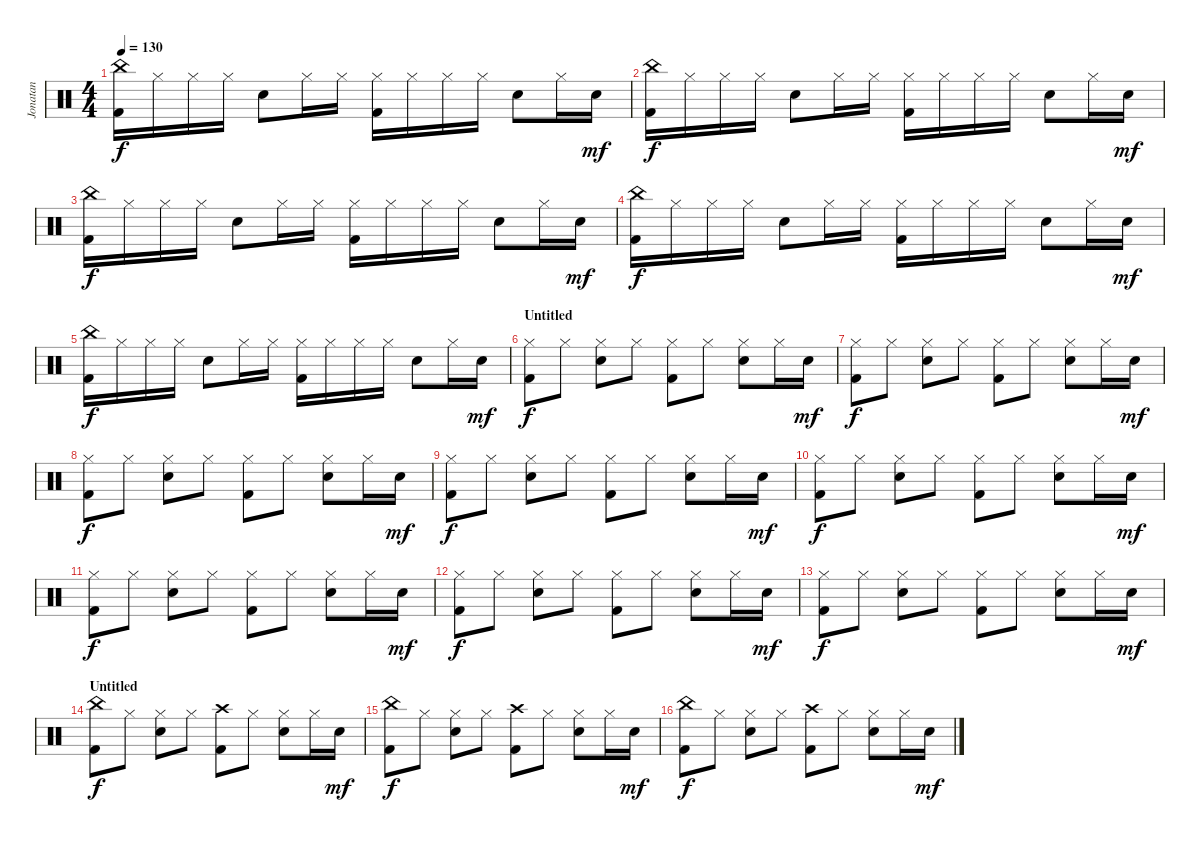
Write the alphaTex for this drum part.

\track ("Jonatan" "Jonatan") {instrument percussion}
\staff {score}
\articulation defaults
\ts (4 4)
\tempo 130
\clef neutral
\ks c
("China (hit)" "Kick (hit) 2").16{dy f} "Hi-Hat (closed)".16 "Hi-Hat (closed)".16 "Hi-Hat (closed)".16 "Electric Snare (hit)".8 "Hi-Hat (closed)".16 "Hi-Hat (closed)".16 ("Hi-Hat (closed)" "Kick (hit) 2").16 "Hi-Hat (closed)".16 "Hi-Hat (closed)".16 "Hi-Hat (closed)".16 "Electric Snare (hit)".8 "Hi-Hat (closed)".16 "Electric Snare (hit)".16{dy mf} |
("China (hit)" "Kick (hit) 2").16{dy f} "Hi-Hat (closed)".16 "Hi-Hat (closed)".16 "Hi-Hat (closed)".16 "Electric Snare (hit)".8 "Hi-Hat (closed)".16 "Hi-Hat (closed)".16 ("Hi-Hat (closed)" "Kick (hit) 2").16 "Hi-Hat (closed)".16 "Hi-Hat (closed)".16 "Hi-Hat (closed)".16 "Electric Snare (hit)".8 "Hi-Hat (closed)".16 "Electric Snare (hit)".16{dy mf} |
("China (hit)" "Kick (hit) 2").16{dy f} "Hi-Hat (closed)".16 "Hi-Hat (closed)".16 "Hi-Hat (closed)".16 "Electric Snare (hit)".8 "Hi-Hat (closed)".16 "Hi-Hat (closed)".16 ("Hi-Hat (closed)" "Kick (hit) 2").16 "Hi-Hat (closed)".16 "Hi-Hat (closed)".16 "Hi-Hat (closed)".16 "Electric Snare (hit)".8 "Hi-Hat (closed)".16 "Electric Snare (hit)".16{dy mf} |
("China (hit)" "Kick (hit) 2").16{dy f} "Hi-Hat (closed)".16 "Hi-Hat (closed)".16 "Hi-Hat (closed)".16 "Electric Snare (hit)".8 "Hi-Hat (closed)".16 "Hi-Hat (closed)".16 ("Hi-Hat (closed)" "Kick (hit) 2").16 "Hi-Hat (closed)".16 "Hi-Hat (closed)".16 "Hi-Hat (closed)".16 "Electric Snare (hit)".8 "Hi-Hat (closed)".16 "Electric Snare (hit)".16{dy mf} |
("China (hit)" "Kick (hit) 2").16{dy f} "Hi-Hat (closed)".16 "Hi-Hat (closed)".16 "Hi-Hat (closed)".16 "Electric Snare (hit)".8 "Hi-Hat (closed)".16 "Hi-Hat (closed)".16 ("Hi-Hat (closed)" "Kick (hit) 2").16 "Hi-Hat (closed)".16 "Hi-Hat (closed)".16 "Hi-Hat (closed)".16 "Electric Snare (hit)".8 "Hi-Hat (closed)".16 "Electric Snare (hit)".16{dy mf} |
\section ("" "Untitled")
("Hi-Hat (closed)" "Kick (hit) 2").8{dy f} "Hi-Hat (closed)".8 ("Hi-Hat (closed)" "Electric Snare (hit)").8 "Hi-Hat (closed)".8 ("Hi-Hat (closed)" "Kick (hit) 2").8 "Hi-Hat (closed)".8 ("Hi-Hat (closed)" "Electric Snare (hit)").8 "Hi-Hat (closed)".16 "Electric Snare (hit)".16{dy mf} |
("Hi-Hat (closed)" "Kick (hit) 2").8{dy f} "Hi-Hat (closed)".8 ("Hi-Hat (closed)" "Electric Snare (hit)").8 "Hi-Hat (closed)".8 ("Hi-Hat (closed)" "Kick (hit) 2").8 "Hi-Hat (closed)".8 ("Hi-Hat (closed)" "Electric Snare (hit)").8 "Hi-Hat (closed)".16 "Electric Snare (hit)".16{dy mf} |
("Hi-Hat (closed)" "Kick (hit) 2").8{dy f} "Hi-Hat (closed)".8 ("Hi-Hat (closed)" "Electric Snare (hit)").8 "Hi-Hat (closed)".8 ("Hi-Hat (closed)" "Kick (hit) 2").8 "Hi-Hat (closed)".8 ("Hi-Hat (closed)" "Electric Snare (hit)").8 "Hi-Hat (closed)".16 "Electric Snare (hit)".16{dy mf} |
("Hi-Hat (closed)" "Kick (hit) 2").8{dy f} "Hi-Hat (closed)".8 ("Hi-Hat (closed)" "Electric Snare (hit)").8 "Hi-Hat (closed)".8 ("Hi-Hat (closed)" "Kick (hit) 2").8 "Hi-Hat (closed)".8 ("Hi-Hat (closed)" "Electric Snare (hit)").8 "Hi-Hat (closed)".16 "Electric Snare (hit)".16{dy mf} |
("Hi-Hat (closed)" "Kick (hit) 2").8{dy f} "Hi-Hat (closed)".8 ("Hi-Hat (closed)" "Electric Snare (hit)").8 "Hi-Hat (closed)".8 ("Hi-Hat (closed)" "Kick (hit) 2").8 "Hi-Hat (closed)".8 ("Hi-Hat (closed)" "Electric Snare (hit)").8 "Hi-Hat (closed)".16 "Electric Snare (hit)".16{dy mf} |
("Hi-Hat (closed)" "Kick (hit) 2").8{dy f} "Hi-Hat (closed)".8 ("Hi-Hat (closed)" "Electric Snare (hit)").8 "Hi-Hat (closed)".8 ("Hi-Hat (closed)" "Kick (hit) 2").8 "Hi-Hat (closed)".8 ("Hi-Hat (closed)" "Electric Snare (hit)").8 "Hi-Hat (closed)".16 "Electric Snare (hit)".16{dy mf} |
("Hi-Hat (closed)" "Kick (hit) 2").8{dy f} "Hi-Hat (closed)".8 ("Hi-Hat (closed)" "Electric Snare (hit)").8 "Hi-Hat (closed)".8 ("Hi-Hat (closed)" "Kick (hit) 2").8 "Hi-Hat (closed)".8 ("Hi-Hat (closed)" "Electric Snare (hit)").8 "Hi-Hat (closed)".16 "Electric Snare (hit)".16{dy mf} |
("Hi-Hat (closed)" "Kick (hit) 2").8{dy f} "Hi-Hat (closed)".8 ("Hi-Hat (closed)" "Electric Snare (hit)").8 "Hi-Hat (closed)".8 ("Hi-Hat (closed)" "Kick (hit) 2").8 "Hi-Hat (closed)".8 ("Hi-Hat (closed)" "Electric Snare (hit)").8 "Hi-Hat (closed)".16 "Electric Snare (hit)".16{dy mf} |
\section ("" "Untitled")
("China (hit)" "Kick (hit) 2").8{dy f} "Hi-Hat (closed)".8 ("Hi-Hat (closed)" "Electric Snare (hit)").8 "Hi-Hat (closed)".8 ("Crash high (hit)" "Kick (hit) 2").8 "Hi-Hat (closed)".8 ("Hi-Hat (closed)" "Electric Snare (hit)").8 "Hi-Hat (closed)".16 "Electric Snare (hit)".16{dy mf} |
("China (hit)" "Kick (hit) 2").8{dy f} "Hi-Hat (closed)".8 ("Hi-Hat (closed)" "Electric Snare (hit)").8 "Hi-Hat (closed)".8 ("Crash high (hit)" "Kick (hit) 2").8 "Hi-Hat (closed)".8 ("Hi-Hat (closed)" "Electric Snare (hit)").8 "Hi-Hat (closed)".16 "Electric Snare (hit)".16{dy mf} |
("China (hit)" "Kick (hit) 2").8{dy f} "Hi-Hat (closed)".8 ("Hi-Hat (closed)" "Electric Snare (hit)").8 "Hi-Hat (closed)".8 ("Crash high (hit)" "Kick (hit) 2").8 "Hi-Hat (closed)".8 ("Hi-Hat (closed)" "Electric Snare (hit)").8 "Hi-Hat (closed)".16 "Electric Snare (hit)".16{dy mf}
